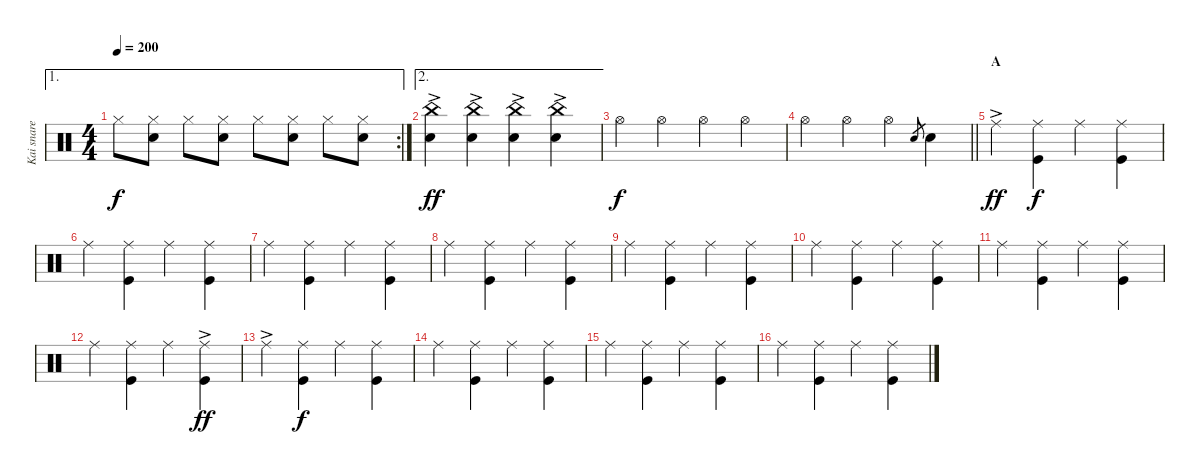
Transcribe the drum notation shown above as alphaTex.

\track ("Kai snare" "Kai snare") {instrument percussion}
\staff {score}
\articulation defaults
\ae 1
\rc 2
\ts (4 4)
\tempo 200
\clef neutral
\ks c "Hi-Hat (closed)".8{dy f}
("Hi-Hat (closed)" "Snare (hit) 2").8 "Hi-Hat (closed)".8 ("Hi-Hat (closed)" "Snare (hit) 2").8 "Hi-Hat (closed)".8 ("Hi-Hat (closed)" "Snare (hit) 2").8 "Hi-Hat (closed)".8 ("Hi-Hat (closed)" "Snare (hit) 2").8 |
\ae 2
("China (hit)"{ac} "Snare (hit) 2").4{dy ff} ("China (hit)"{ac} "Snare (hit) 2").4 ("China (hit)"{ac} "Snare (hit) 2").4 ("China (hit)"{ac} "Snare (hit) 2").4 |
"Hi-Hat (open)".4{dy f} "Hi-Hat (open)".4 "Hi-Hat (open)".4 "Hi-Hat (open)".4 |
\barLineRight lightlight "Hi-Hat (open)".4 "Hi-Hat (open)".4 "Hi-Hat (open)".4 "Snare (hit) 2".8{gr} "Snare (hit) 2".4
|
\section ("" "A")
"Ride (middle)"{ac}.4{dy ff} ("Ride (middle)" "Kick (hit)").4{dy f} "Ride (middle)".4 ("Ride (middle)" "Kick (hit)").4 |
"Ride (middle)".4 ("Ride (middle)" "Kick (hit)").4 "Ride (middle)".4 ("Ride (middle)" "Kick (hit)").4 |
"Ride (middle)".4 ("Ride (middle)" "Kick (hit)").4 "Ride (middle)".4 ("Ride (middle)" "Kick (hit)").4 |
"Ride (middle)".4 ("Ride (middle)" "Kick (hit)").4 "Ride (middle)".4 ("Ride (middle)" "Kick (hit)").4 |
"Ride (middle)".4 ("Ride (middle)" "Kick (hit)").4 "Ride (middle)".4 ("Ride (middle)" "Kick (hit)").4 |
"Ride (middle)".4 ("Ride (middle)" "Kick (hit)").4 "Ride (middle)".4 ("Ride (middle)" "Kick (hit)").4 |
"Ride (middle)".4 ("Ride (middle)" "Kick (hit)").4 "Ride (middle)".4 ("Ride (middle)" "Kick (hit)").4 |
"Ride (middle)".4 ("Ride (middle)" "Kick (hit)").4 "Ride (middle)".4 ("Ride (middle)"{ac} "Kick (hit)").4{dy ff} |
"Ride (middle)"{ac}.4 ("Ride (middle)" "Kick (hit)").4{dy f} "Ride (middle)".4 ("Ride (middle)" "Kick (hit)").4 |
"Ride (middle)".4 ("Ride (middle)" "Kick (hit)").4 "Ride (middle)".4 ("Ride (middle)" "Kick (hit)").4 |
"Ride (middle)".4 ("Ride (middle)" "Kick (hit)").4 "Ride (middle)".4 ("Ride (middle)" "Kick (hit)").4 |
"Ride (middle)".4 ("Ride (middle)" "Kick (hit)").4 "Ride (middle)".4 ("Ride (middle)" "Kick (hit)").4
